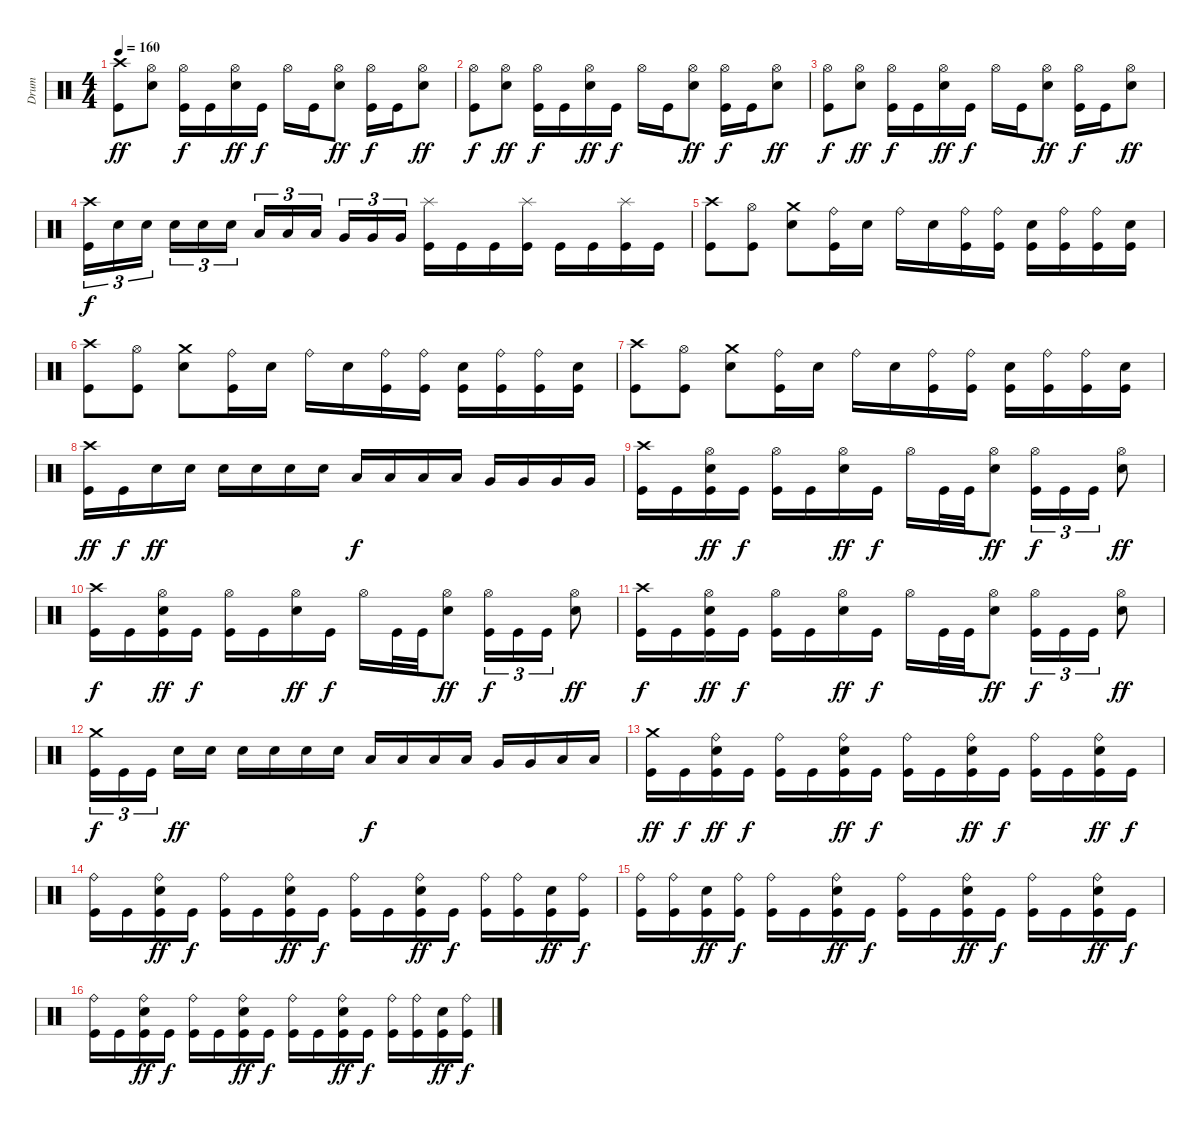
\track ("Drum" "Drum") {instrument percussion}
\staff {score}
\articulation defaults
\ts (4 4)
\tempo 160
\clef neutral
\ks c
("Kick (hit)" "Crash high (hit)").8{dy ff} ("Electric Snare (hit)" "Hi-Hat (open)").8 ("Kick (hit)" "Hi-Hat (open)").16{dy f} "Kick (hit)".16 ("Electric Snare (hit)" "Hi-Hat (open)").16{dy ff} "Kick (hit)".16{dy f} "Hi-Hat (open)".16 "Kick (hit)".16 ("Electric Snare (hit)" "Hi-Hat (open)").8{dy ff} ("Kick (hit)" "Hi-Hat (open)").16{dy f} "Kick (hit)".16 ("Electric Snare (hit)" "Hi-Hat (open)").8{dy ff} |
("Kick (hit)" "Hi-Hat (open)").8{dy f} ("Electric Snare (hit)" "Hi-Hat (open)").8{dy ff} ("Kick (hit)" "Hi-Hat (open)").16{dy f} "Kick (hit)".16 ("Electric Snare (hit)" "Hi-Hat (open)").16{dy ff} "Kick (hit)".16{dy f} "Hi-Hat (open)".16 "Kick (hit)".16 ("Electric Snare (hit)" "Hi-Hat (open)").8{dy ff} ("Kick (hit)" "Hi-Hat (open)").16{dy f} "Kick (hit)".16 ("Electric Snare (hit)" "Hi-Hat (open)").8{dy ff} |
("Kick (hit)" "Hi-Hat (open)").8{dy f} ("Electric Snare (hit)" "Hi-Hat (open)").8{dy ff} ("Kick (hit)" "Hi-Hat (open)").16{dy f} "Kick (hit)".16 ("Electric Snare (hit)" "Hi-Hat (open)").16{dy ff} "Kick (hit)".16{dy f} "Hi-Hat (open)".16 "Kick (hit)".16 ("Electric Snare (hit)" "Hi-Hat (open)").8{dy ff} ("Kick (hit)" "Hi-Hat (open)").16{dy f} "Kick (hit)".16 ("Electric Snare (hit)" "Hi-Hat (open)").8{dy ff} |
("Kick (hit)" "Crash high (hit)").16{tu (3 2) dy f} "Electric Snare (hit)".16{tu (3 2)} "Electric Snare (hit)".16{tu (3 2)} "Electric Snare (hit)".16{tu (3 2)} "Electric Snare (hit)".16{tu (3 2)} "Electric Snare (hit)".16{tu (3 2)} "Low Tom (hit)".16{tu (3 2)} "Low Tom (hit)".16{tu (3 2)} "Low Tom (hit)".16{tu (3 2)} "Very Low Tom (hit)".16{tu (3 2)} "Very Low Tom (hit)".16{tu (3 2)} "Very Low Tom (hit)".16{tu (3 2)} ("Kick (hit)" "Splash (hit)").16 "Kick (hit)".16 "Kick (hit)".16 ("Kick (hit)" "Splash (hit)").16 "Kick (hit)".16 "Kick (hit)".16 ("Kick (hit)" "Splash (hit)").16 "Kick (hit)".16 |
("Kick (hit)" "Crash high (hit)").8 ("Kick (hit)" "Hi-Hat (open)").8 ("Electric Snare (hit)" "Crash medium (hit)").8 ("Kick (hit)" "Ride (bell)").16 "Electric Snare (hit)".16 "Ride (bell)".16 "Electric Snare (hit)".16 ("Kick (hit)" "Ride (bell)").16 ("Kick (hit)" "Ride (bell)").16 ("Kick (hit)" "Electric Snare (hit)").16 ("Kick (hit)" "Ride (bell)").16 ("Kick (hit)" "Ride (bell)").16 ("Kick (hit)" "Electric Snare (hit)").16 |
("Kick (hit)" "Crash high (hit)").8 ("Kick (hit)" "Hi-Hat (open)").8 ("Electric Snare (hit)" "Crash medium (hit)").8 ("Kick (hit)" "Ride (bell)").16 "Electric Snare (hit)".16 "Ride (bell)".16 "Electric Snare (hit)".16 ("Kick (hit)" "Ride (bell)").16 ("Kick (hit)" "Ride (bell)").16 ("Kick (hit)" "Electric Snare (hit)").16 ("Kick (hit)" "Ride (bell)").16 ("Kick (hit)" "Ride (bell)").16 ("Kick (hit)" "Electric Snare (hit)").16 |
("Kick (hit)" "Crash high (hit)").8 ("Kick (hit)" "Hi-Hat (open)").8 ("Electric Snare (hit)" "Crash medium (hit)").8 ("Kick (hit)" "Ride (bell)").16 "Electric Snare (hit)".16 "Ride (bell)".16 "Electric Snare (hit)".16 ("Kick (hit)" "Ride (bell)").16 ("Kick (hit)" "Ride (bell)").16 ("Kick (hit)" "Electric Snare (hit)").16 ("Kick (hit)" "Ride (bell)").16 ("Kick (hit)" "Ride (bell)").16 ("Kick (hit)" "Electric Snare (hit)").16 |
("Kick (hit)" "Crash high (hit)").16{dy ff} "Kick (hit)".16{dy f} "Electric Snare (hit)".16{dy ff} "Electric Snare (hit)".16 "Electric Snare (hit)".16 "Electric Snare (hit)".16 "Electric Snare (hit)".16 "Electric Snare (hit)".16 "Low Tom (hit)".16{dy f} "Low Tom (hit)".16 "Low Tom (hit)".16 "Low Tom (hit)".16 "Very Low Tom (hit)".16 "Very Low Tom (hit)".16 "Very Low Tom (hit)".16 "Very Low Tom (hit)".16 |
("Kick (hit)" "Crash high (hit)").16 "Kick (hit)".16 ("Kick (hit)" "Electric Snare (hit)" "Hi-Hat (open)").16{dy ff} "Kick (hit)".16{dy f} ("Kick (hit)" "Hi-Hat (open)").16 "Kick (hit)".16 ("Electric Snare (hit)" "Hi-Hat (open)").16{dy ff} "Kick (hit)".16{dy f} "Hi-Hat (open)".16 "Kick (hit)".32 "Kick (hit)".32 ("Electric Snare (hit)" "Hi-Hat (open)").8{dy ff} ("Kick (hit)" "Hi-Hat (open)").16{tu (3 2) dy f} "Kick (hit)".16{tu (3 2)} "Kick (hit)".16{tu (3 2)} ("Electric Snare (hit)" "Hi-Hat (open)").8{dy ff} |
("Kick (hit)" "Crash high (hit)").16{dy f} "Kick (hit)".16 ("Kick (hit)" "Electric Snare (hit)" "Hi-Hat (open)").16{dy ff} "Kick (hit)".16{dy f} ("Kick (hit)" "Hi-Hat (open)").16 "Kick (hit)".16 ("Electric Snare (hit)" "Hi-Hat (open)").16{dy ff} "Kick (hit)".16{dy f} "Hi-Hat (open)".16 "Kick (hit)".32 "Kick (hit)".32 ("Electric Snare (hit)" "Hi-Hat (open)").8{dy ff} ("Kick (hit)" "Hi-Hat (open)").16{tu (3 2) dy f} "Kick (hit)".16{tu (3 2)} "Kick (hit)".16{tu (3 2)} ("Electric Snare (hit)" "Hi-Hat (open)").8{dy ff} |
("Kick (hit)" "Crash high (hit)").16{dy f} "Kick (hit)".16 ("Kick (hit)" "Electric Snare (hit)" "Hi-Hat (open)").16{dy ff} "Kick (hit)".16{dy f} ("Kick (hit)" "Hi-Hat (open)").16 "Kick (hit)".16 ("Electric Snare (hit)" "Hi-Hat (open)").16{dy ff} "Kick (hit)".16{dy f} "Hi-Hat (open)".16 "Kick (hit)".32 "Kick (hit)".32 ("Electric Snare (hit)" "Hi-Hat (open)").8{dy ff} ("Kick (hit)" "Hi-Hat (open)").16{tu (3 2) dy f} "Kick (hit)".16{tu (3 2)} "Kick (hit)".16{tu (3 2)} ("Electric Snare (hit)" "Hi-Hat (open)").8{dy ff} |
("Kick (hit)" "Crash medium (hit)").16{tu (3 2) dy f} "Kick (hit)".16{tu (3 2)} "Kick (hit)".16{tu (3 2)} "Electric Snare (hit)".16{dy ff} "Electric Snare (hit)".16 "Electric Snare (hit)".16 "Electric Snare (hit)".16 "Electric Snare (hit)".16 "Electric Snare (hit)".16 "Low Tom (hit)".16{dy f} "Low Tom (hit)".16 "Low Tom (hit)".16 "Low Tom (hit)".16 "Very Low Tom (hit)".16 "Very Low Tom (hit)".16 "Low Floor Tom (hit)".16 "Low Floor Tom (hit)".16 |
("Kick (hit)" "Crash medium (hit)").16{dy ff} "Kick (hit)".16{dy f} ("Kick (hit)" "Electric Snare (hit)" "Ride (bell)").16{dy ff} "Kick (hit)".16{dy f} ("Kick (hit)" "Ride (bell)").16 "Kick (hit)".16 ("Kick (hit)" "Electric Snare (hit)" "Ride (bell)").16{dy ff} "Kick (hit)".16{dy f} ("Kick (hit)" "Ride (bell)").16 "Kick (hit)".16 ("Kick (hit)" "Electric Snare (hit)" "Ride (bell)").16{dy ff} "Kick (hit)".16{dy f} ("Kick (hit)" "Ride (bell)").16 "Kick (hit)".16 ("Kick (hit)" "Electric Snare (hit)" "Ride (bell)").16{dy ff} "Kick (hit)".16{dy f} |
("Kick (hit)" "Ride (bell)").16 "Kick (hit)".16 ("Kick (hit)" "Electric Snare (hit)" "Ride (bell)").16{dy ff} "Kick (hit)".16{dy f} ("Kick (hit)" "Ride (bell)").16 "Kick (hit)".16 ("Kick (hit)" "Electric Snare (hit)" "Ride (bell)").16{dy ff} "Kick (hit)".16{dy f} ("Kick (hit)" "Ride (bell)").16 "Kick (hit)".16 ("Kick (hit)" "Electric Snare (hit)" "Ride (bell)").16{dy ff} "Kick (hit)".16{dy f} ("Kick (hit)" "Ride (bell)").16 ("Kick (hit)" "Ride (bell)").16 ("Kick (hit)" "Electric Snare (hit)").16{dy ff} ("Kick (hit)" "Ride (bell)").16{dy f} |
("Kick (hit)" "Ride (bell)").16 ("Kick (hit)" "Ride (bell)").16 ("Kick (hit)" "Electric Snare (hit)").16{dy ff} ("Kick (hit)" "Ride (bell)").16{dy f} ("Kick (hit)" "Ride (bell)").16 "Kick (hit)".16 ("Kick (hit)" "Electric Snare (hit)" "Ride (bell)").16{dy ff} "Kick (hit)".16{dy f} ("Kick (hit)" "Ride (bell)").16 "Kick (hit)".16 ("Kick (hit)" "Electric Snare (hit)" "Ride (bell)").16{dy ff} "Kick (hit)".16{dy f} ("Kick (hit)" "Ride (bell)").16 "Kick (hit)".16 ("Kick (hit)" "Electric Snare (hit)" "Ride (bell)").16{dy ff} "Kick (hit)".16{dy f} |
("Kick (hit)" "Ride (bell)").16 "Kick (hit)".16 ("Kick (hit)" "Electric Snare (hit)" "Ride (bell)").16{dy ff} "Kick (hit)".16{dy f} ("Kick (hit)" "Ride (bell)").16 "Kick (hit)".16 ("Kick (hit)" "Electric Snare (hit)" "Ride (bell)").16{dy ff} "Kick (hit)".16{dy f} ("Kick (hit)" "Ride (bell)").16 "Kick (hit)".16 ("Kick (hit)" "Electric Snare (hit)" "Ride (bell)").16{dy ff} "Kick (hit)".16{dy f} ("Kick (hit)" "Ride (bell)").16 ("Kick (hit)" "Ride (bell)").16 ("Kick (hit)" "Electric Snare (hit)").16{dy ff} ("Kick (hit)" "Ride (bell)").16{dy f}
